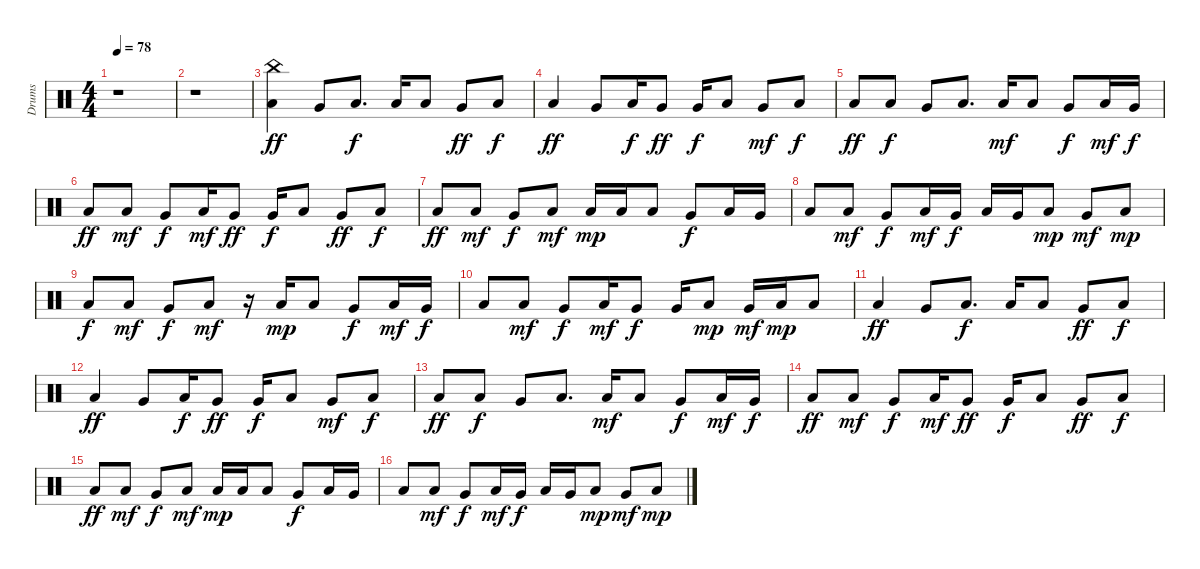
\track ("Drums" "Drums") {instrument percussion}
\staff {score}
\articulation defaults
\ts (4 4)
\tempo 78
\clef neutral
\ks c
r.1{dy f} |
r.1 |
("China (hit)" "Low Floor Tom (hit)").4{dy ff} "Very Low Tom (hit)".8 "Low Floor Tom (hit)".8{d dy f} "Low Floor Tom (hit)".16 "Low Floor Tom (hit)".8 "Very Low Tom (hit)".8{dy ff} "Low Floor Tom (hit)".8{dy f} |
"Low Floor Tom (hit)".4{dy ff} "Very Low Tom (hit)".8 "Low Floor Tom (hit)".16{dy f} "Very Low Tom (hit)".8{dy ff} "Very Low Tom (hit)".16{dy f} "Low Floor Tom (hit)".8 "Very Low Tom (hit)".8{dy mf} "Low Floor Tom (hit)".8{dy f} |
"Low Floor Tom (hit)".8{dy ff} "Low Floor Tom (hit)".8{dy f} "Very Low Tom (hit)".8 "Low Floor Tom (hit)".8{d} "Low Floor Tom (hit)".16{dy mf} "Low Floor Tom (hit)".8 "Very Low Tom (hit)".8{dy f} "Low Floor Tom (hit)".16{dy mf} "Very Low Tom (hit)".16{dy f} |
"Low Floor Tom (hit)".8{dy ff} "Low Floor Tom (hit)".8{dy mf} "Very Low Tom (hit)".8{dy f} "Low Floor Tom (hit)".16{dy mf} "Very Low Tom (hit)".8{dy ff} "Very Low Tom (hit)".16{dy f} "Low Floor Tom (hit)".8 "Very Low Tom (hit)".8{dy ff} "Low Floor Tom (hit)".8{dy f} |
"Low Floor Tom (hit)".8{dy ff} "Low Floor Tom (hit)".8{dy mf} "Very Low Tom (hit)".8{dy f} "Low Floor Tom (hit)".8{dy mf} "Low Floor Tom (hit)".16{dy mp} "Low Floor Tom (hit)".16 "Low Floor Tom (hit)".8 "Very Low Tom (hit)".8{dy f} "Low Floor Tom (hit)".16 "Very Low Tom (hit)".16 |
"Low Floor Tom (hit)".8 "Low Floor Tom (hit)".8{dy mf} "Very Low Tom (hit)".8{dy f} "Low Floor Tom (hit)".16{dy mf} "Very Low Tom (hit)".16{dy f} "Low Floor Tom (hit)".16 "Very Low Tom (hit)".16 "Low Floor Tom (hit)".8{dy mp} "Very Low Tom (hit)".8{dy mf} "Low Floor Tom (hit)".8{dy mp} |
"Low Floor Tom (hit)".8{dy f} "Low Floor Tom (hit)".8{dy mf} "Very Low Tom (hit)".8{dy f} "Low Floor Tom (hit)".8{dy mf} r.16 "Low Floor Tom (hit)".16{dy mp} "Low Floor Tom (hit)".8 "Very Low Tom (hit)".8{dy f} "Low Floor Tom (hit)".16{dy mf} "Very Low Tom (hit)".16{dy f} |
"Low Floor Tom (hit)".8 "Low Floor Tom (hit)".8{dy mf} "Very Low Tom (hit)".8{dy f} "Low Floor Tom (hit)".16{dy mf} "Very Low Tom (hit)".8{dy f} "Very Low Tom (hit)".16 "Low Floor Tom (hit)".8{dy mp} "Very Low Tom (hit)".16{dy mf} "Low Floor Tom (hit)".16{dy mp} "Low Floor Tom (hit)".8 |
"Low Floor Tom (hit)".4{dy ff} "Very Low Tom (hit)".8 "Low Floor Tom (hit)".8{d dy f} "Low Floor Tom (hit)".16 "Low Floor Tom (hit)".8 "Very Low Tom (hit)".8{dy ff} "Low Floor Tom (hit)".8{dy f} |
"Low Floor Tom (hit)".4{dy ff} "Very Low Tom (hit)".8 "Low Floor Tom (hit)".16{dy f} "Very Low Tom (hit)".8{dy ff} "Very Low Tom (hit)".16{dy f} "Low Floor Tom (hit)".8 "Very Low Tom (hit)".8{dy mf} "Low Floor Tom (hit)".8{dy f} |
"Low Floor Tom (hit)".8{dy ff} "Low Floor Tom (hit)".8{dy f} "Very Low Tom (hit)".8 "Low Floor Tom (hit)".8{d} "Low Floor Tom (hit)".16{dy mf} "Low Floor Tom (hit)".8 "Very Low Tom (hit)".8{dy f} "Low Floor Tom (hit)".16{dy mf} "Very Low Tom (hit)".16{dy f} |
"Low Floor Tom (hit)".8{dy ff} "Low Floor Tom (hit)".8{dy mf} "Very Low Tom (hit)".8{dy f} "Low Floor Tom (hit)".16{dy mf} "Very Low Tom (hit)".8{dy ff} "Very Low Tom (hit)".16{dy f} "Low Floor Tom (hit)".8 "Very Low Tom (hit)".8{dy ff} "Low Floor Tom (hit)".8{dy f} |
"Low Floor Tom (hit)".8{dy ff} "Low Floor Tom (hit)".8{dy mf} "Very Low Tom (hit)".8{dy f} "Low Floor Tom (hit)".8{dy mf} "Low Floor Tom (hit)".16{dy mp} "Low Floor Tom (hit)".16 "Low Floor Tom (hit)".8 "Very Low Tom (hit)".8{dy f} "Low Floor Tom (hit)".16 "Very Low Tom (hit)".16 |
"Low Floor Tom (hit)".8 "Low Floor Tom (hit)".8{dy mf} "Very Low Tom (hit)".8{dy f} "Low Floor Tom (hit)".16{dy mf} "Very Low Tom (hit)".16{dy f} "Low Floor Tom (hit)".16 "Very Low Tom (hit)".16 "Low Floor Tom (hit)".8{dy mp} "Very Low Tom (hit)".8{dy mf} "Low Floor Tom (hit)".8{dy mp}
